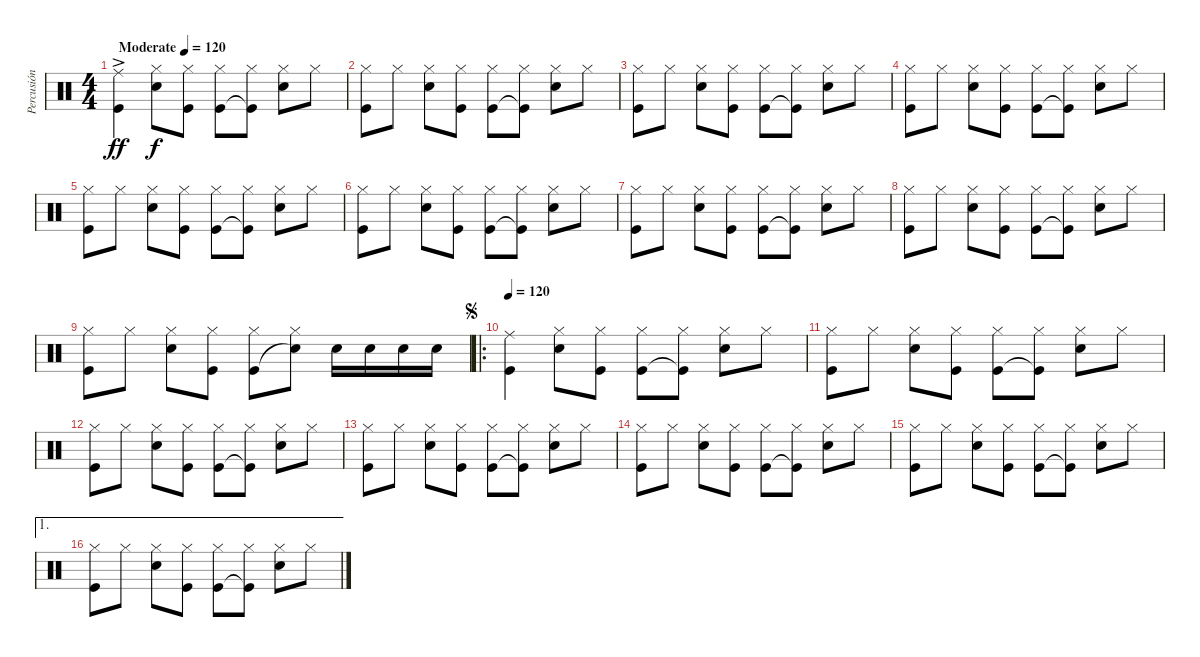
\track ("Percusión" "Percusión") {instrument percussion}
\staff {score}
\articulation defaults
\ts (4 4)
\tempo (120 "Moderate")
\clef neutral
\ks c
("Ride (middle)" "Kick (hit)"{ac}).4{dy ff} ("Snare (hit) 2" "Hi-Hat (closed)").8{dy f} ("Hi-Hat (closed)" "Kick (hit)").8 ("Kick (hit)" "Hi-Hat (closed)").8 ("Kick (hit)"{t} "Hi-Hat (closed)").8 ("Hi-Hat (closed)" "Snare (hit) 2").8 "Hi-Hat (closed)".8 |
("Hi-Hat (closed)" "Kick (hit)").8 "Hi-Hat (closed)".8 ("Hi-Hat (closed)" "Snare (hit) 2").8 ("Hi-Hat (closed)" "Kick (hit)").8 ("Hi-Hat (closed)" "Kick (hit)").8 ("Hi-Hat (closed)" "Kick (hit)"{t}).8 ("Hi-Hat (closed)" "Snare (hit) 2").8 "Hi-Hat (closed)".8 |
("Hi-Hat (closed)" "Kick (hit)").8 "Hi-Hat (closed)".8 ("Hi-Hat (closed)" "Snare (hit) 2").8 ("Hi-Hat (closed)" "Kick (hit)").8 ("Hi-Hat (closed)" "Kick (hit)").8 ("Hi-Hat (closed)" "Kick (hit)"{t}).8 ("Hi-Hat (closed)" "Snare (hit) 2").8 "Hi-Hat (closed)".8 |
("Hi-Hat (closed)" "Kick (hit)").8 "Hi-Hat (closed)".8 ("Hi-Hat (closed)" "Snare (hit) 2").8 ("Hi-Hat (closed)" "Kick (hit)").8 ("Hi-Hat (closed)" "Kick (hit)").8 ("Hi-Hat (closed)" "Kick (hit)"{t}).8 ("Hi-Hat (closed)" "Snare (hit) 2").8 "Hi-Hat (closed)".8 |
("Hi-Hat (closed)" "Kick (hit)").8 "Hi-Hat (closed)".8 ("Hi-Hat (closed)" "Snare (hit) 2").8 ("Hi-Hat (closed)" "Kick (hit)").8 ("Hi-Hat (closed)" "Kick (hit)").8 ("Hi-Hat (closed)" "Kick (hit)"{t}).8 ("Hi-Hat (closed)" "Snare (hit) 2").8 "Hi-Hat (closed)".8 |
("Hi-Hat (closed)" "Kick (hit)").8 "Hi-Hat (closed)".8 ("Hi-Hat (closed)" "Snare (hit) 2").8 ("Hi-Hat (closed)" "Kick (hit)").8 ("Hi-Hat (closed)" "Kick (hit)").8 ("Hi-Hat (closed)" "Kick (hit)"{t}).8 ("Hi-Hat (closed)" "Snare (hit) 2").8 "Hi-Hat (closed)".8 |
("Hi-Hat (closed)" "Kick (hit)").8 "Hi-Hat (closed)".8 ("Hi-Hat (closed)" "Snare (hit) 2").8 ("Hi-Hat (closed)" "Kick (hit)").8 ("Hi-Hat (closed)" "Kick (hit)").8 ("Hi-Hat (closed)" "Kick (hit)"{t}).8 ("Hi-Hat (closed)" "Snare (hit) 2").8 "Hi-Hat (closed)".8 |
("Hi-Hat (closed)" "Kick (hit)").8 "Hi-Hat (closed)".8 ("Hi-Hat (closed)" "Snare (hit) 2").8 ("Hi-Hat (closed)" "Kick (hit)").8 ("Hi-Hat (closed)" "Kick (hit)").8 ("Hi-Hat (closed)" "Kick (hit)"{t}).8 ("Hi-Hat (closed)" "Snare (hit) 2").8 "Hi-Hat (closed)".8 |
("Hi-Hat (closed)" "Kick (hit)").8 "Hi-Hat (closed)".8 ("Hi-Hat (closed)" "Snare (hit) 2").8 ("Hi-Hat (closed)" "Kick (hit)").8 ("Hi-Hat (closed)" "Kick (hit)").8 ("Hi-Hat (closed)" "Snare (hit)"{t}).8 "Snare (hit) 2".16 "Snare (hit) 2".16 "Snare (hit) 2".16 "Snare (hit) 2".16 |
\ro
\jump segno
\tempo 120
("Kick (hit)" "Ride (middle)").4 ("Hi-Hat (closed)" "Snare (hit) 2").8 ("Hi-Hat (closed)" "Kick (hit)").8 ("Kick (hit)" "Hi-Hat (closed)").8 ("Kick (hit)"{t} "Hi-Hat (closed)").8 ("Hi-Hat (closed)" "Snare (hit) 2").8 "Hi-Hat (closed)".8 |
("Hi-Hat (closed)" "Kick (hit)").8 "Hi-Hat (closed)".8 ("Hi-Hat (closed)" "Snare (hit) 2").8 ("Hi-Hat (closed)" "Kick (hit)").8 ("Hi-Hat (closed)" "Kick (hit)").8 ("Hi-Hat (closed)" "Kick (hit)"{t}).8 ("Snare (hit) 2" "Hi-Hat (closed)").8 "Hi-Hat (closed)".8 |
("Hi-Hat (closed)" "Kick (hit)").8 "Hi-Hat (closed)".8 ("Hi-Hat (closed)" "Snare (hit) 2").8 ("Hi-Hat (closed)" "Kick (hit)").8 ("Hi-Hat (closed)" "Kick (hit)").8 ("Hi-Hat (closed)" "Kick (hit)"{t}).8 ("Snare (hit) 2" "Hi-Hat (closed)").8 "Hi-Hat (closed)".8 |
("Hi-Hat (closed)" "Kick (hit)").8 "Hi-Hat (closed)".8 ("Hi-Hat (closed)" "Snare (hit) 2").8 ("Hi-Hat (closed)" "Kick (hit)").8 ("Hi-Hat (closed)" "Kick (hit)").8 ("Hi-Hat (closed)" "Kick (hit)"{t}).8 ("Snare (hit) 2" "Hi-Hat (closed)").8 "Hi-Hat (closed)".8 |
("Hi-Hat (closed)" "Kick (hit)").8 "Hi-Hat (closed)".8 ("Hi-Hat (closed)" "Snare (hit) 2").8 ("Hi-Hat (closed)" "Kick (hit)").8 ("Hi-Hat (closed)" "Kick (hit)").8 ("Hi-Hat (closed)" "Kick (hit)"{t}).8 ("Snare (hit) 2" "Hi-Hat (closed)").8 "Hi-Hat (closed)".8 |
("Hi-Hat (closed)" "Kick (hit)").8 "Hi-Hat (closed)".8 ("Hi-Hat (closed)" "Snare (hit) 2").8 ("Hi-Hat (closed)" "Kick (hit)").8 ("Hi-Hat (closed)" "Kick (hit)").8 ("Hi-Hat (closed)" "Kick (hit)"{t}).8 ("Snare (hit) 2" "Hi-Hat (closed)").8 "Hi-Hat (closed)".8 |
\ae 1
("Hi-Hat (closed)" "Kick (hit)").8 "Hi-Hat (closed)".8 ("Hi-Hat (closed)" "Snare (hit) 2").8 ("Hi-Hat (closed)" "Kick (hit)").8 ("Hi-Hat (closed)" "Kick (hit)").8 ("Hi-Hat (closed)" "Kick (hit)"{t}).8 ("Snare (hit) 2" "Hi-Hat (closed)").8 "Hi-Hat (closed)".8
